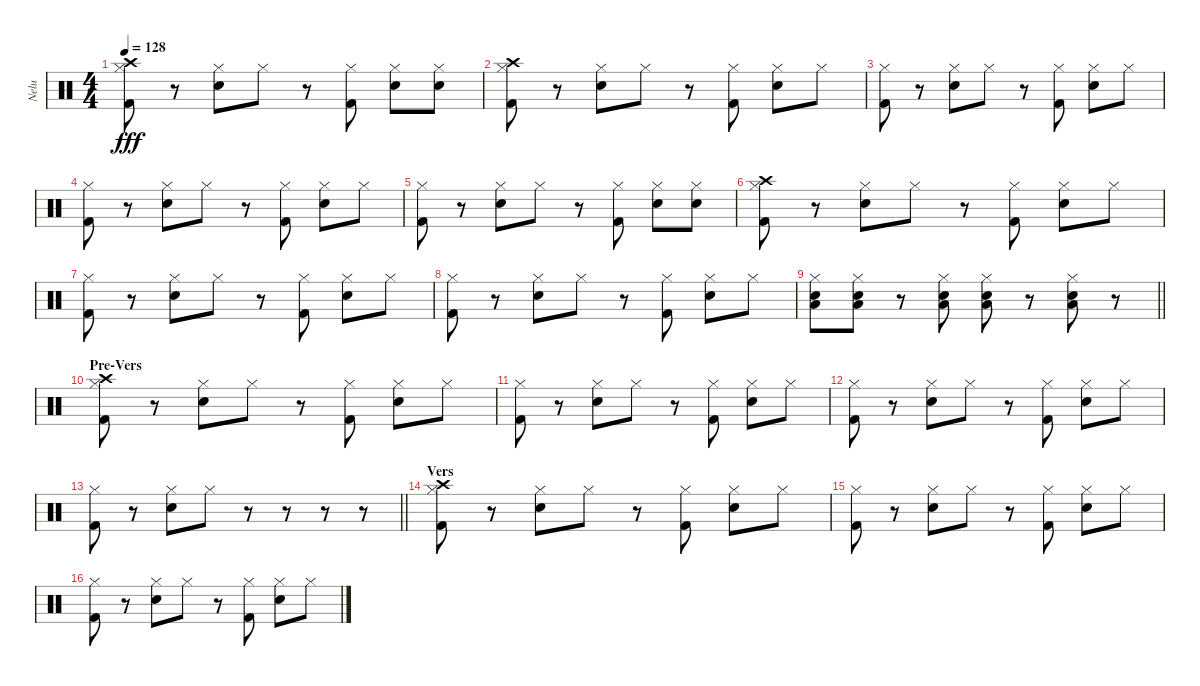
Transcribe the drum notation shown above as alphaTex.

\track ("Nelu" "Nelu") {instrument percussion}
\staff {score}
\articulation defaults
\ts (4 4)
\tempo 128
\clef neutral
\ks c
("Kick (hit) 2" "Crash high (hit)" "Hi-Hat (closed)").8{dy fff} r.8 ("Electric Snare (hit)" "Hi-Hat (closed)").8 "Hi-Hat (closed)".8 r.8 ("Hi-Hat (closed)" "Kick (hit) 2").8 ("Hi-Hat (closed)" "Electric Snare (hit)").8 ("Electric Snare (hit)" "Hi-Hat (closed)").8 |
("Kick (hit) 2" "Crash high (hit)" "Hi-Hat (closed)").8 r.8 ("Electric Snare (hit)" "Hi-Hat (closed)").8 "Hi-Hat (closed)".8 r.8 ("Hi-Hat (closed)" "Kick (hit) 2").8 ("Hi-Hat (closed)" "Electric Snare (hit)").8 "Hi-Hat (closed)".8 |
("Kick (hit) 2" "Hi-Hat (closed)").8 r.8 ("Electric Snare (hit)" "Hi-Hat (closed)").8 "Hi-Hat (closed)".8 r.8 ("Hi-Hat (closed)" "Kick (hit) 2").8 ("Hi-Hat (closed)" "Electric Snare (hit)").8 "Hi-Hat (closed)".8 |
("Kick (hit) 2" "Hi-Hat (closed)").8 r.8 ("Electric Snare (hit)" "Hi-Hat (closed)").8 "Hi-Hat (closed)".8 r.8 ("Hi-Hat (closed)" "Kick (hit) 2").8 ("Hi-Hat (closed)" "Electric Snare (hit)").8 "Hi-Hat (closed)".8 |
("Kick (hit) 2" "Hi-Hat (closed)").8 r.8 ("Electric Snare (hit)" "Hi-Hat (closed)").8 "Hi-Hat (closed)".8 r.8 ("Hi-Hat (closed)" "Kick (hit) 2").8 ("Hi-Hat (closed)" "Electric Snare (hit)").8 ("Hi-Hat (closed)" "Electric Snare (hit)").8 |
("Kick (hit) 2" "Crash high (hit)" "Hi-Hat (closed)").8 r.8 ("Electric Snare (hit)" "Hi-Hat (closed)").8 "Hi-Hat (closed)".8 r.8 ("Hi-Hat (closed)" "Kick (hit) 2").8 ("Hi-Hat (closed)" "Electric Snare (hit)").8 "Hi-Hat (closed)".8 |
("Kick (hit) 2" "Hi-Hat (closed)").8 r.8 ("Electric Snare (hit)" "Hi-Hat (closed)").8 "Hi-Hat (closed)".8 r.8 ("Hi-Hat (closed)" "Kick (hit) 2").8 ("Hi-Hat (closed)" "Electric Snare (hit)").8 "Hi-Hat (closed)".8 |
("Kick (hit) 2" "Hi-Hat (closed)").8 r.8 ("Electric Snare (hit)" "Hi-Hat (closed)").8 "Hi-Hat (closed)".8 r.8 ("Hi-Hat (closed)" "Kick (hit) 2").8 ("Hi-Hat (closed)" "Electric Snare (hit)").8 "Hi-Hat (closed)".8 |
\barLineRight lightlight
("Electric Snare (hit)" "Low Floor Tom (hit)" "Hi-Hat (closed)").8 ("Electric Snare (hit)" "Low Floor Tom (hit)" "Hi-Hat (closed)").8 r.8 ("Electric Snare (hit)" "Low Floor Tom (hit)" "Hi-Hat (closed)").8 ("Electric Snare (hit)" "Low Floor Tom (hit)" "Hi-Hat (closed)").8 r.8 ("Electric Snare (hit)" "Low Floor Tom (hit)" "Hi-Hat (closed)").8 r.8 |
\section ("" "Pre-Vers")
("Kick (hit) 2" "Crash high (hit)" "Hi-Hat (closed)").8 r.8 ("Electric Snare (hit)" "Hi-Hat (closed)").8 "Hi-Hat (closed)".8 r.8 ("Hi-Hat (closed)" "Kick (hit) 2").8 ("Hi-Hat (closed)" "Electric Snare (hit)").8 "Hi-Hat (closed)".8 |
("Kick (hit) 2" "Hi-Hat (closed)").8 r.8 ("Electric Snare (hit)" "Hi-Hat (closed)").8 "Hi-Hat (closed)".8 r.8 ("Hi-Hat (closed)" "Kick (hit) 2").8 ("Hi-Hat (closed)" "Electric Snare (hit)").8 "Hi-Hat (closed)".8 |
("Kick (hit) 2" "Hi-Hat (closed)").8 r.8 ("Electric Snare (hit)" "Hi-Hat (closed)").8 "Hi-Hat (closed)".8 r.8 ("Hi-Hat (closed)" "Kick (hit) 2").8 ("Hi-Hat (closed)" "Electric Snare (hit)").8 "Hi-Hat (closed)".8 |
\barLineRight lightlight
("Kick (hit) 2" "Hi-Hat (closed)").8 r.8 ("Electric Snare (hit)" "Hi-Hat (closed)").8 "Hi-Hat (closed)".8 r.8 r.8 r.8 r.8 |
\section ("" "Vers")
("Kick (hit) 2" "Crash high (hit)" "Hi-Hat (closed)").8 r.8 ("Electric Snare (hit)" "Hi-Hat (closed)").8 "Hi-Hat (closed)".8 r.8 ("Hi-Hat (closed)" "Kick (hit) 2").8 ("Hi-Hat (closed)" "Electric Snare (hit)").8 "Hi-Hat (closed)".8 |
("Kick (hit) 2" "Hi-Hat (closed)").8 r.8 ("Electric Snare (hit)" "Hi-Hat (closed)").8 "Hi-Hat (closed)".8 r.8 ("Hi-Hat (closed)" "Kick (hit) 2").8 ("Hi-Hat (closed)" "Electric Snare (hit)").8 "Hi-Hat (closed)".8 |
("Kick (hit) 2" "Hi-Hat (closed)").8 r.8 ("Electric Snare (hit)" "Hi-Hat (closed)").8 "Hi-Hat (closed)".8 r.8 ("Hi-Hat (closed)" "Kick (hit) 2").8 ("Hi-Hat (closed)" "Electric Snare (hit)").8 "Hi-Hat (closed)".8
